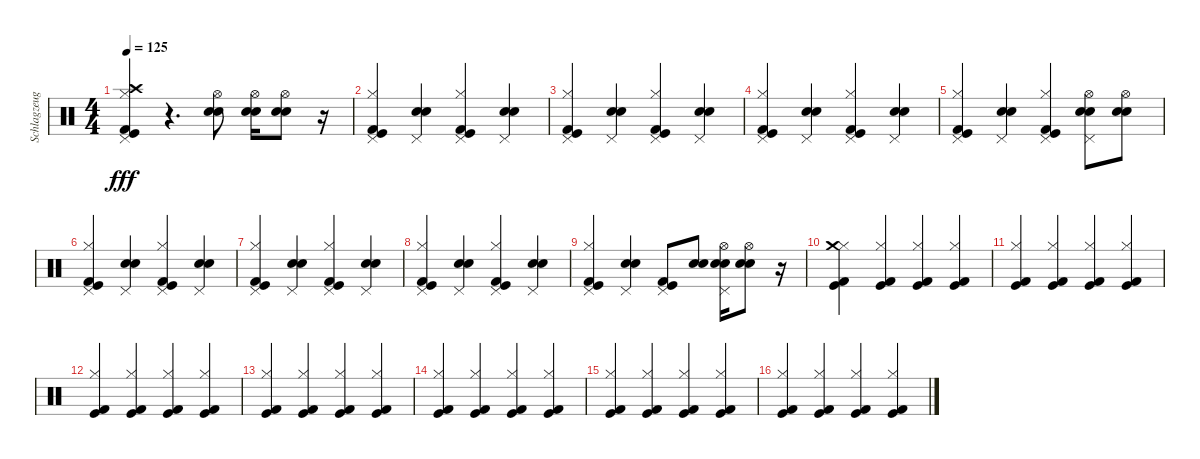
\track ("Schlagzeug" "Schlagzeug") {instrument percussion}
\staff {score}
\articulation defaults
\ts (4 4)
\tempo 125
\clef neutral
\ks c
("Pedal Hi-Hat (hit)" "Kick (hit)" "Hi-Hat (closed)" "Crash high (hit)" "Kick (hit) 2").4{dy fff} r.4{d} ("Electric Snare (hit)" "Snare (hit) 2" "Hi-Hat (open)").8 ("Hi-Hat (open)" "Snare (hit) 2" "Electric Snare (hit)").16 ("Hi-Hat (open)" "Snare (hit) 2" "Electric Snare (hit)").8 r.16 |
("Pedal Hi-Hat (hit)" "Kick (hit)" "Kick (hit) 2" "Hi-Hat (closed)").4 ("Pedal Hi-Hat (hit)" "Snare (hit) 2" "Electric Snare (hit)").4 ("Pedal Hi-Hat (hit)" "Kick (hit)" "Kick (hit) 2" "Hi-Hat (closed)").4 ("Pedal Hi-Hat (hit)" "Snare (hit) 2" "Electric Snare (hit)").4 |
("Pedal Hi-Hat (hit)" "Kick (hit)" "Kick (hit) 2" "Hi-Hat (closed)").4 ("Pedal Hi-Hat (hit)" "Snare (hit) 2" "Electric Snare (hit)").4 ("Pedal Hi-Hat (hit)" "Kick (hit)" "Kick (hit) 2" "Hi-Hat (closed)").4 ("Pedal Hi-Hat (hit)" "Snare (hit) 2" "Electric Snare (hit)").4 |
("Pedal Hi-Hat (hit)" "Kick (hit)" "Kick (hit) 2" "Hi-Hat (closed)").4 ("Pedal Hi-Hat (hit)" "Snare (hit) 2" "Electric Snare (hit)").4 ("Pedal Hi-Hat (hit)" "Kick (hit)" "Kick (hit) 2" "Hi-Hat (closed)").4 ("Pedal Hi-Hat (hit)" "Snare (hit) 2" "Electric Snare (hit)").4 |
("Pedal Hi-Hat (hit)" "Kick (hit)" "Kick (hit) 2" "Hi-Hat (closed)").4 ("Pedal Hi-Hat (hit)" "Snare (hit) 2" "Electric Snare (hit)").4 ("Pedal Hi-Hat (hit)" "Kick (hit)" "Kick (hit) 2" "Hi-Hat (closed)").4 ("Pedal Hi-Hat (hit)" "Snare (hit) 2" "Hi-Hat (open)" "Electric Snare (hit)").8 ("Snare (hit) 2" "Hi-Hat (open)" "Electric Snare (hit)").8 |
("Pedal Hi-Hat (hit)" "Kick (hit)" "Kick (hit) 2" "Hi-Hat (closed)").4 ("Pedal Hi-Hat (hit)" "Snare (hit) 2" "Electric Snare (hit)").4 ("Pedal Hi-Hat (hit)" "Kick (hit)" "Kick (hit) 2" "Hi-Hat (closed)").4 ("Pedal Hi-Hat (hit)" "Snare (hit) 2" "Electric Snare (hit)").4 |
("Pedal Hi-Hat (hit)" "Kick (hit)" "Kick (hit) 2" "Hi-Hat (closed)").4 ("Pedal Hi-Hat (hit)" "Snare (hit) 2" "Electric Snare (hit)").4 ("Pedal Hi-Hat (hit)" "Kick (hit)" "Kick (hit) 2" "Hi-Hat (closed)").4 ("Pedal Hi-Hat (hit)" "Snare (hit) 2" "Electric Snare (hit)").4 |
("Pedal Hi-Hat (hit)" "Kick (hit)" "Kick (hit) 2" "Hi-Hat (closed)").4 ("Pedal Hi-Hat (hit)" "Snare (hit) 2" "Electric Snare (hit)").4 ("Pedal Hi-Hat (hit)" "Kick (hit)" "Kick (hit) 2" "Hi-Hat (closed)").4 ("Pedal Hi-Hat (hit)" "Snare (hit) 2" "Electric Snare (hit)").4 |
("Pedal Hi-Hat (hit)" "Kick (hit)" "Kick (hit) 2" "Hi-Hat (closed)").4 ("Electric Snare (hit)" "Snare (hit) 2" "Pedal Hi-Hat (hit)").4 ("Kick (hit) 2" "Kick (hit)" "Pedal Hi-Hat (hit)").8 ("Snare (hit) 2" "Electric Snare (hit)").8 ("Pedal Hi-Hat (hit)" "Electric Snare (hit)" "Snare (hit) 2" "Hi-Hat (open)").16 ("Snare (hit) 2" "Hi-Hat (open)" "Electric Snare (hit)").8 r.16 |
("Kick (hit)" "Hi-Hat (closed)" "Kick (hit) 2" "Crash medium (hit)").4 ("Kick (hit)" "Hi-Hat (closed)" "Kick (hit) 2").4 ("Kick (hit)" "Hi-Hat (closed)" "Kick (hit) 2").4 ("Kick (hit)" "Hi-Hat (closed)" "Kick (hit) 2").4 |
("Kick (hit)" "Hi-Hat (closed)" "Kick (hit) 2").4 ("Kick (hit)" "Hi-Hat (closed)" "Kick (hit) 2").4 ("Kick (hit)" "Hi-Hat (closed)" "Kick (hit) 2").4 ("Kick (hit)" "Hi-Hat (closed)" "Kick (hit) 2").4 |
("Kick (hit)" "Hi-Hat (closed)" "Kick (hit) 2").4 ("Kick (hit)" "Hi-Hat (closed)" "Kick (hit) 2").4 ("Kick (hit)" "Hi-Hat (closed)" "Kick (hit) 2").4 ("Kick (hit)" "Hi-Hat (closed)" "Kick (hit) 2").4 |
("Kick (hit)" "Hi-Hat (closed)" "Kick (hit) 2").4 ("Kick (hit)" "Hi-Hat (closed)" "Kick (hit) 2").4 ("Kick (hit)" "Hi-Hat (closed)" "Kick (hit) 2").4 ("Kick (hit)" "Hi-Hat (closed)" "Kick (hit) 2").4 |
("Kick (hit)" "Hi-Hat (closed)" "Kick (hit) 2").4 ("Kick (hit)" "Hi-Hat (closed)" "Kick (hit) 2").4 ("Kick (hit)" "Hi-Hat (closed)" "Kick (hit) 2").4 ("Kick (hit)" "Hi-Hat (closed)" "Kick (hit) 2").4 |
("Kick (hit)" "Hi-Hat (closed)" "Kick (hit) 2").4 ("Kick (hit)" "Hi-Hat (closed)" "Kick (hit) 2").4 ("Kick (hit)" "Hi-Hat (closed)" "Kick (hit) 2").4 ("Kick (hit)" "Hi-Hat (closed)" "Kick (hit) 2").4 |
("Kick (hit)" "Hi-Hat (closed)" "Kick (hit) 2").4 ("Kick (hit)" "Hi-Hat (closed)" "Kick (hit) 2").4 ("Kick (hit)" "Hi-Hat (closed)" "Kick (hit) 2").4 ("Kick (hit)" "Hi-Hat (closed)" "Kick (hit) 2").4
